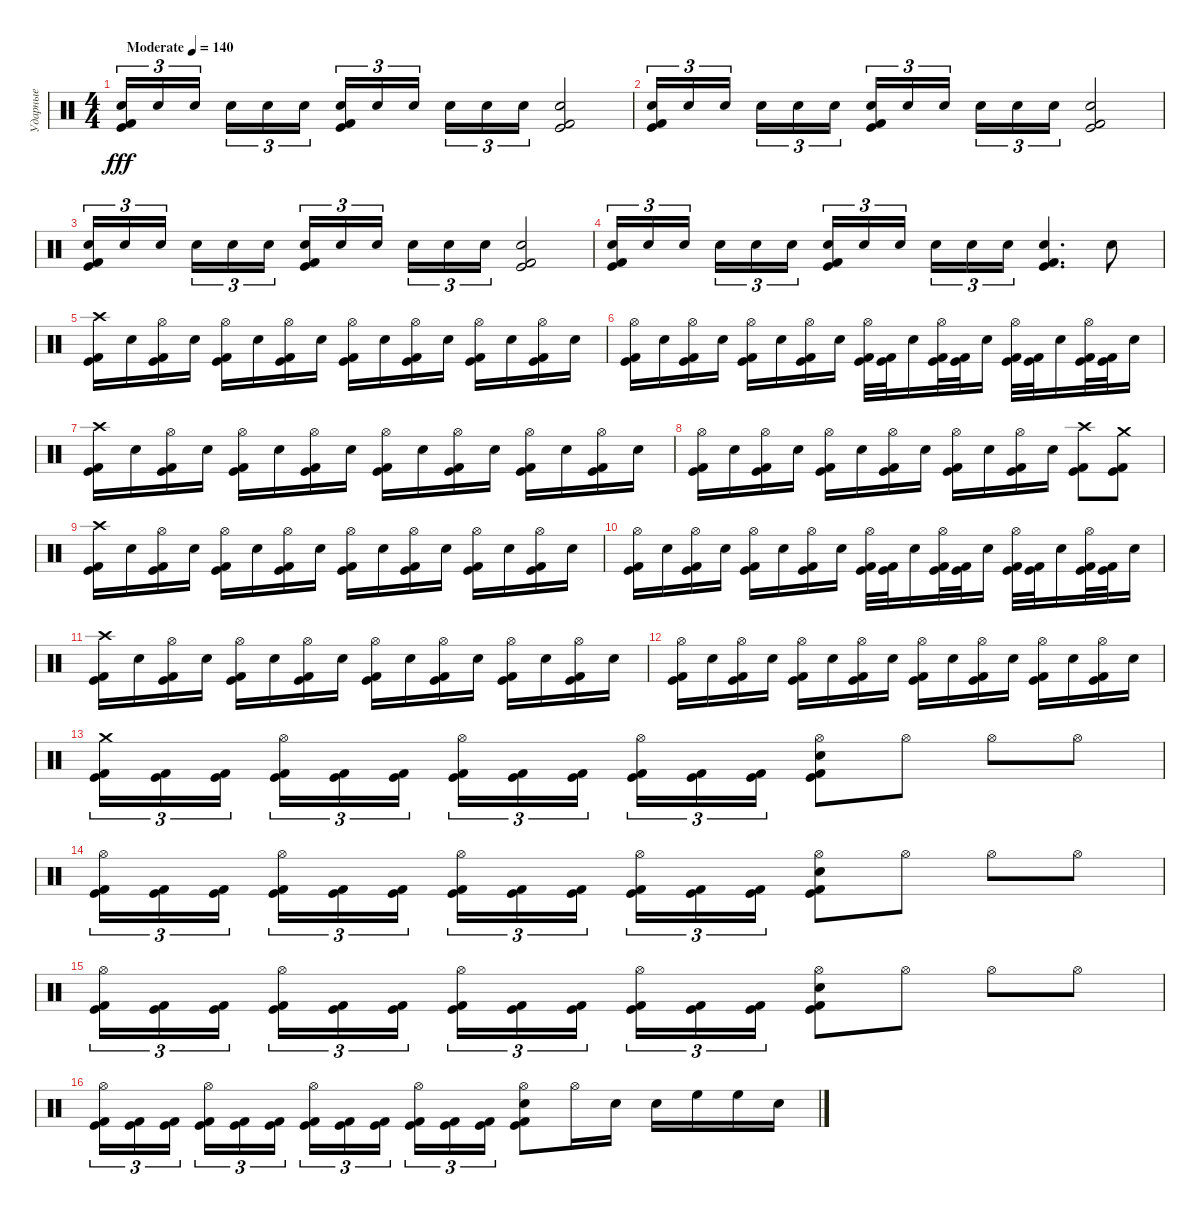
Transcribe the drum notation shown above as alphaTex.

\track ("Ударные" "Ударные") {instrument percussion}
\staff {score}
\articulation defaults
\ts (4 4)
\tempo (140 "Moderate")
\clef neutral
\ks c
("Electric Snare (hit)" "Kick (hit)" "Kick (hit) 2").16{tu (3 2) dy fff} "Electric Snare (hit)".16{tu (3 2)} "Electric Snare (hit)".16{tu (3 2) beam splitsecondary} "Electric Snare (hit)".16{tu (3 2)} "Electric Snare (hit)".16{tu (3 2)} "Electric Snare (hit)".16{tu (3 2)} ("Electric Snare (hit)" "Kick (hit) 2" "Kick (hit)").16{tu (3 2)} "Electric Snare (hit)".16{tu (3 2)} "Electric Snare (hit)".16{tu (3 2) beam splitsecondary} "Electric Snare (hit)".16{tu (3 2)} "Electric Snare (hit)".16{tu (3 2)} "Electric Snare (hit)".16{tu (3 2)} ("Electric Snare (hit)" "Kick (hit)" "Kick (hit) 2").2 |
("Electric Snare (hit)" "Kick (hit)" "Kick (hit) 2").16{tu (3 2)} "Electric Snare (hit)".16{tu (3 2)} "Electric Snare (hit)".16{tu (3 2) beam splitsecondary} "Electric Snare (hit)".16{tu (3 2)} "Electric Snare (hit)".16{tu (3 2)} "Electric Snare (hit)".16{tu (3 2)} ("Electric Snare (hit)" "Kick (hit) 2" "Kick (hit)").16{tu (3 2)} "Electric Snare (hit)".16{tu (3 2)} "Electric Snare (hit)".16{tu (3 2) beam splitsecondary} "Electric Snare (hit)".16{tu (3 2)} "Electric Snare (hit)".16{tu (3 2)} "Electric Snare (hit)".16{tu (3 2)} ("Electric Snare (hit)" "Kick (hit)" "Kick (hit) 2").2 |
("Electric Snare (hit)" "Kick (hit)" "Kick (hit) 2").16{tu (3 2)} "Electric Snare (hit)".16{tu (3 2)} "Electric Snare (hit)".16{tu (3 2) beam splitsecondary} "Electric Snare (hit)".16{tu (3 2)} "Electric Snare (hit)".16{tu (3 2)} "Electric Snare (hit)".16{tu (3 2)} ("Electric Snare (hit)" "Kick (hit) 2" "Kick (hit)").16{tu (3 2)} "Electric Snare (hit)".16{tu (3 2)} "Electric Snare (hit)".16{tu (3 2) beam splitsecondary} "Electric Snare (hit)".16{tu (3 2)} "Electric Snare (hit)".16{tu (3 2)} "Electric Snare (hit)".16{tu (3 2)} ("Electric Snare (hit)" "Kick (hit)" "Kick (hit) 2").2 |
("Electric Snare (hit)" "Kick (hit)" "Kick (hit) 2").16{tu (3 2)} "Electric Snare (hit)".16{tu (3 2)} "Electric Snare (hit)".16{tu (3 2) beam splitsecondary} "Electric Snare (hit)".16{tu (3 2)} "Electric Snare (hit)".16{tu (3 2)} "Electric Snare (hit)".16{tu (3 2)} ("Electric Snare (hit)" "Kick (hit) 2" "Kick (hit)").16{tu (3 2)} "Electric Snare (hit)".16{tu (3 2)} "Electric Snare (hit)".16{tu (3 2) beam splitsecondary} "Electric Snare (hit)".16{tu (3 2)} "Electric Snare (hit)".16{tu (3 2)} "Electric Snare (hit)".16{tu (3 2)} ("Electric Snare (hit)" "Kick (hit)" "Kick (hit) 2").4{d} "Electric Snare (hit)".8 |
("Kick (hit)" "Kick (hit) 2" "Crash high (hit)").16 "Electric Snare (hit)".16 ("Kick (hit)" "Kick (hit) 2" "Hi-Hat (open)").16 "Electric Snare (hit)".16 ("Kick (hit)" "Kick (hit) 2" "Hi-Hat (open)").16 "Electric Snare (hit)".16 ("Kick (hit)" "Kick (hit) 2" "Hi-Hat (open)").16 "Electric Snare (hit)".16 ("Kick (hit)" "Kick (hit) 2" "Hi-Hat (open)").16 "Electric Snare (hit)".16 ("Kick (hit)" "Kick (hit) 2" "Hi-Hat (open)").16 "Electric Snare (hit)".16 ("Kick (hit)" "Kick (hit) 2" "Hi-Hat (open)").16 "Electric Snare (hit)".16 ("Kick (hit)" "Kick (hit) 2" "Hi-Hat (open)").16 "Electric Snare (hit)".16 |
("Kick (hit)" "Kick (hit) 2" "Hi-Hat (open)").16 "Electric Snare (hit)".16 ("Kick (hit)" "Kick (hit) 2" "Hi-Hat (open)").16 "Electric Snare (hit)".16 ("Kick (hit)" "Kick (hit) 2" "Hi-Hat (open)").16 "Electric Snare (hit)".16 ("Kick (hit)" "Kick (hit) 2" "Hi-Hat (open)").16 "Electric Snare (hit)".16 ("Kick (hit)" "Kick (hit) 2" "Hi-Hat (open)").32 ("Kick (hit)" "Kick (hit) 2").32 "Electric Snare (hit)".16 ("Kick (hit)" "Kick (hit) 2" "Hi-Hat (open)").32 ("Kick (hit)" "Kick (hit) 2").32 "Electric Snare (hit)".16 ("Kick (hit)" "Kick (hit) 2" "Hi-Hat (open)").32 ("Kick (hit)" "Kick (hit) 2").32 "Electric Snare (hit)".16 ("Kick (hit)" "Kick (hit) 2" "Hi-Hat (open)").32 ("Kick (hit)" "Kick (hit) 2").32 "Electric Snare (hit)".16 |
("Kick (hit)" "Kick (hit) 2" "Crash high (hit)").16 "Electric Snare (hit)".16 ("Kick (hit)" "Kick (hit) 2" "Hi-Hat (open)").16 "Electric Snare (hit)".16 ("Kick (hit)" "Kick (hit) 2" "Hi-Hat (open)").16 "Electric Snare (hit)".16 ("Kick (hit)" "Kick (hit) 2" "Hi-Hat (open)").16 "Electric Snare (hit)".16 ("Kick (hit)" "Kick (hit) 2" "Hi-Hat (open)").16 "Electric Snare (hit)".16 ("Kick (hit)" "Kick (hit) 2" "Hi-Hat (open)").16 "Electric Snare (hit)".16 ("Kick (hit)" "Kick (hit) 2" "Hi-Hat (open)").16 "Electric Snare (hit)".16 ("Kick (hit)" "Kick (hit) 2" "Hi-Hat (open)").16 "Electric Snare (hit)".16 |
("Kick (hit)" "Kick (hit) 2" "Hi-Hat (open)").16 "Electric Snare (hit)".16 ("Kick (hit)" "Kick (hit) 2" "Hi-Hat (open)").16 "Electric Snare (hit)".16 ("Kick (hit)" "Kick (hit) 2" "Hi-Hat (open)").16 "Electric Snare (hit)".16 ("Kick (hit)" "Kick (hit) 2" "Hi-Hat (open)").16 "Electric Snare (hit)".16 ("Kick (hit)" "Kick (hit) 2" "Hi-Hat (open)").16 "Electric Snare (hit)".16 ("Kick (hit)" "Kick (hit) 2" "Hi-Hat (open)").16 "Electric Snare (hit)".16 ("Kick (hit) 2" "Kick (hit)" "Crash high (hit)").8 ("Kick (hit) 2" "Kick (hit)" "Crash medium (hit)").8 |
("Kick (hit)" "Kick (hit) 2" "Crash high (hit)").16 "Electric Snare (hit)".16 ("Kick (hit)" "Kick (hit) 2" "Hi-Hat (open)").16 "Electric Snare (hit)".16 ("Kick (hit)" "Kick (hit) 2" "Hi-Hat (open)").16 "Electric Snare (hit)".16 ("Kick (hit)" "Kick (hit) 2" "Hi-Hat (open)").16 "Electric Snare (hit)".16 ("Kick (hit)" "Kick (hit) 2" "Hi-Hat (open)").16 "Electric Snare (hit)".16 ("Kick (hit)" "Kick (hit) 2" "Hi-Hat (open)").16 "Electric Snare (hit)".16 ("Kick (hit)" "Kick (hit) 2" "Hi-Hat (open)").16 "Electric Snare (hit)".16 ("Kick (hit)" "Kick (hit) 2" "Hi-Hat (open)").16 "Electric Snare (hit)".16 |
("Kick (hit)" "Kick (hit) 2" "Hi-Hat (open)").16 "Electric Snare (hit)".16 ("Kick (hit)" "Kick (hit) 2" "Hi-Hat (open)").16 "Electric Snare (hit)".16 ("Kick (hit)" "Kick (hit) 2" "Hi-Hat (open)").16 "Electric Snare (hit)".16 ("Kick (hit)" "Kick (hit) 2" "Hi-Hat (open)").16 "Electric Snare (hit)".16 ("Kick (hit)" "Kick (hit) 2" "Hi-Hat (open)").32 ("Kick (hit)" "Kick (hit) 2").32 "Electric Snare (hit)".16 ("Kick (hit)" "Kick (hit) 2" "Hi-Hat (open)").32 ("Kick (hit)" "Kick (hit) 2").32 "Electric Snare (hit)".16 ("Kick (hit)" "Kick (hit) 2" "Hi-Hat (open)").32 ("Kick (hit)" "Kick (hit) 2").32 "Electric Snare (hit)".16 ("Kick (hit)" "Kick (hit) 2" "Hi-Hat (open)").32 ("Kick (hit)" "Kick (hit) 2").32 "Electric Snare (hit)".16 |
("Kick (hit)" "Kick (hit) 2" "Crash high (hit)").16 "Electric Snare (hit)".16 ("Kick (hit)" "Kick (hit) 2" "Hi-Hat (open)").16 "Electric Snare (hit)".16 ("Kick (hit)" "Kick (hit) 2" "Hi-Hat (open)").16 "Electric Snare (hit)".16 ("Kick (hit)" "Kick (hit) 2" "Hi-Hat (open)").16 "Electric Snare (hit)".16 ("Kick (hit)" "Kick (hit) 2" "Hi-Hat (open)").16 "Electric Snare (hit)".16 ("Kick (hit)" "Kick (hit) 2" "Hi-Hat (open)").16 "Electric Snare (hit)".16 ("Kick (hit)" "Kick (hit) 2" "Hi-Hat (open)").16 "Electric Snare (hit)".16 ("Kick (hit)" "Kick (hit) 2" "Hi-Hat (open)").16 "Electric Snare (hit)".16 |
("Kick (hit)" "Kick (hit) 2" "Hi-Hat (open)").16 "Electric Snare (hit)".16 ("Kick (hit)" "Kick (hit) 2" "Hi-Hat (open)").16 "Electric Snare (hit)".16 ("Kick (hit)" "Kick (hit) 2" "Hi-Hat (open)").16 "Electric Snare (hit)".16 ("Kick (hit)" "Kick (hit) 2" "Hi-Hat (open)").16 "Electric Snare (hit)".16 ("Kick (hit)" "Kick (hit) 2" "Hi-Hat (open)").16 "Electric Snare (hit)".16 ("Kick (hit)" "Kick (hit) 2" "Hi-Hat (open)").16 "Electric Snare (hit)".16 ("Kick (hit)" "Kick (hit) 2" "Hi-Hat (open)").16 "Electric Snare (hit)".16 ("Kick (hit)" "Kick (hit) 2" "Hi-Hat (open)").16 "Electric Snare (hit)".16 |
("Kick (hit)" "Kick (hit) 2" "Crash medium (hit)").16{tu (3 2)} ("Kick (hit)" "Kick (hit) 2").16{tu (3 2)} ("Kick (hit)" "Kick (hit) 2").16{tu (3 2) beam splitsecondary} ("Hi-Hat (open)" "Kick (hit)" "Kick (hit) 2").16{tu (3 2)} ("Kick (hit)" "Kick (hit) 2").16{tu (3 2)} ("Kick (hit)" "Kick (hit) 2").16{tu (3 2)} ("Hi-Hat (open)" "Kick (hit)" "Kick (hit) 2").16{tu (3 2)} ("Kick (hit)" "Kick (hit) 2").16{tu (3 2)} ("Kick (hit)" "Kick (hit) 2").16{tu (3 2) beam splitsecondary} ("Hi-Hat (open)" "Kick (hit)" "Kick (hit) 2").16{tu (3 2)} ("Kick (hit)" "Kick (hit) 2").16{tu (3 2)} ("Kick (hit)" "Kick (hit) 2").16{tu (3 2)} ("Hi-Hat (open)" "Kick (hit)" "Kick (hit) 2" "Electric Snare (hit)").8 "Hi-Hat (open)".8 "Hi-Hat (open)".8 "Hi-Hat (open)".8 |
("Hi-Hat (open)" "Kick (hit)" "Kick (hit) 2").16{tu (3 2)} ("Kick (hit)" "Kick (hit) 2").16{tu (3 2)} ("Kick (hit)" "Kick (hit) 2").16{tu (3 2) beam splitsecondary} ("Hi-Hat (open)" "Kick (hit)" "Kick (hit) 2").16{tu (3 2)} ("Kick (hit)" "Kick (hit) 2").16{tu (3 2)} ("Kick (hit)" "Kick (hit) 2").16{tu (3 2)} ("Hi-Hat (open)" "Kick (hit)" "Kick (hit) 2").16{tu (3 2)} ("Kick (hit)" "Kick (hit) 2").16{tu (3 2)} ("Kick (hit)" "Kick (hit) 2").16{tu (3 2) beam splitsecondary} ("Hi-Hat (open)" "Kick (hit)" "Kick (hit) 2").16{tu (3 2)} ("Kick (hit)" "Kick (hit) 2").16{tu (3 2)} ("Kick (hit)" "Kick (hit) 2").16{tu (3 2)} ("Hi-Hat (open)" "Kick (hit)" "Kick (hit) 2" "Electric Snare (hit)").8 "Hi-Hat (open)".8 "Hi-Hat (open)".8 "Hi-Hat (open)".8 |
("Hi-Hat (open)" "Kick (hit)" "Kick (hit) 2").16{tu (3 2)} ("Kick (hit)" "Kick (hit) 2").16{tu (3 2)} ("Kick (hit)" "Kick (hit) 2").16{tu (3 2) beam splitsecondary} ("Hi-Hat (open)" "Kick (hit)" "Kick (hit) 2").16{tu (3 2)} ("Kick (hit)" "Kick (hit) 2").16{tu (3 2)} ("Kick (hit)" "Kick (hit) 2").16{tu (3 2)} ("Hi-Hat (open)" "Kick (hit)" "Kick (hit) 2").16{tu (3 2)} ("Kick (hit)" "Kick (hit) 2").16{tu (3 2)} ("Kick (hit)" "Kick (hit) 2").16{tu (3 2) beam splitsecondary} ("Hi-Hat (open)" "Kick (hit)" "Kick (hit) 2").16{tu (3 2)} ("Kick (hit)" "Kick (hit) 2").16{tu (3 2)} ("Kick (hit)" "Kick (hit) 2").16{tu (3 2)} ("Hi-Hat (open)" "Kick (hit)" "Kick (hit) 2" "Electric Snare (hit)").8 "Hi-Hat (open)".8 "Hi-Hat (open)".8 "Hi-Hat (open)".8 |
("Hi-Hat (open)" "Kick (hit)" "Kick (hit) 2").16{tu (3 2)} ("Kick (hit)" "Kick (hit) 2").16{tu (3 2)} ("Kick (hit)" "Kick (hit) 2").16{tu (3 2) beam splitsecondary} ("Hi-Hat (open)" "Kick (hit)" "Kick (hit) 2").16{tu (3 2)} ("Kick (hit)" "Kick (hit) 2").16{tu (3 2)} ("Kick (hit)" "Kick (hit) 2").16{tu (3 2)} ("Hi-Hat (open)" "Kick (hit)" "Kick (hit) 2").16{tu (3 2)} ("Kick (hit)" "Kick (hit) 2").16{tu (3 2)} ("Kick (hit)" "Kick (hit) 2").16{tu (3 2) beam splitsecondary} ("Hi-Hat (open)" "Kick (hit)" "Kick (hit) 2").16{tu (3 2)} ("Kick (hit)" "Kick (hit) 2").16{tu (3 2)} ("Kick (hit)" "Kick (hit) 2").16{tu (3 2)} ("Hi-Hat (open)" "Kick (hit)" "Kick (hit) 2" "Electric Snare (hit)").8 "Hi-Hat (open)".16 "Electric Snare (hit)".16 "Electric Snare (hit)".16 "High Floor Tom (hit)".16 "High Floor Tom (hit)".16 "Electric Snare (hit)".16
